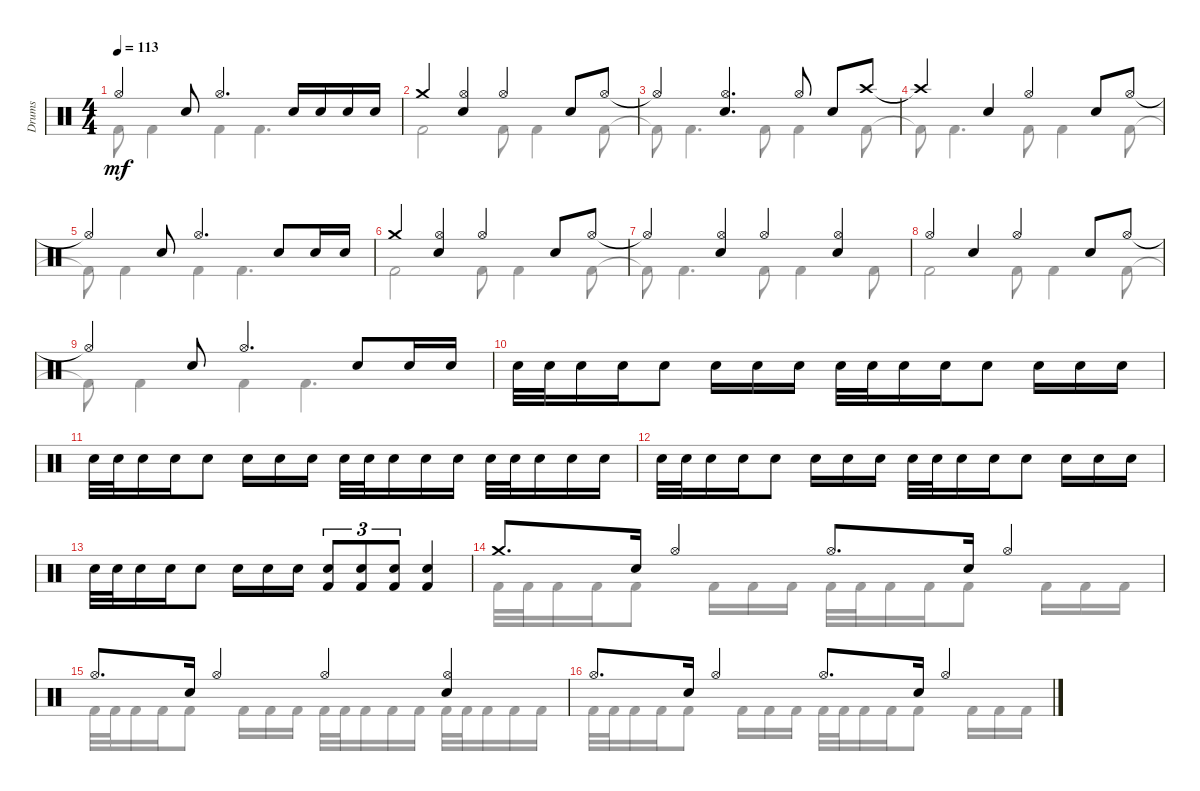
\track ("Drums" "Drums") {instrument percussion}
\staff {score}
\articulation defaults
\voice
\ts (4 4)
\tempo 113
\clef neutral
\ks c "Hi-Hat (open)"{t}.4{dy mf} "Snare (hit) 2".8 "Hi-Hat (open)".4{d} "Snare (hit) 2".16 "Snare (hit) 2".16 "Snare (hit) 2".16 "Snare (hit) 2".16
|
"Crash medium (hit)".4 ("Hi-Hat (open)" "Snare (hit) 2").4 "Hi-Hat (open)".4 "Snare (hit) 2".8 "Hi-Hat (open)".8 |
"Hi-Hat (open)"{t}.4 ("Hi-Hat (open)" "Snare (hit) 2").4{d} "Hi-Hat (open)".8 "Snare (hit) 2".8 "Crash high (hit)".8 |
"Crash high (hit)"{t}.4 "Snare (hit) 2".4 "Hi-Hat (open)".4 "Snare (hit) 2".8 "Hi-Hat (open)".8 |
"Hi-Hat (open)"{t}.4 "Snare (hit) 2".8 "Hi-Hat (open)".4{d} "Snare (hit) 2".8 "Snare (hit) 2".16 "Snare (hit) 2".16 |
"Crash medium (hit)".4 ("Hi-Hat (open)" "Snare (hit) 2").4 "Hi-Hat (open)".4 "Snare (hit) 2".8 "Hi-Hat (open)".8 |
"Hi-Hat (open)"{t}.4 ("Hi-Hat (open)" "Snare (hit) 2").4 "Hi-Hat (open)".4 ("Hi-Hat (open)" "Snare (hit) 2").4 |
"Hi-Hat (open)".4 "Snare (hit) 2".4 "Hi-Hat (open)".4 "Snare (hit) 2".8 "Hi-Hat (open)".8 |
"Hi-Hat (open)"{t}.4 "Snare (hit) 2".8 "Hi-Hat (open)".4{d} "Snare (hit) 2".8 "Snare (hit) 2".16 "Snare (hit) 2".16 |
"Snare (hit) 2".32 "Snare (hit) 2".32 "Snare (hit) 2".16 "Snare (hit) 2".16 "Snare (hit) 2".8 "Snare (hit) 2".16 "Snare (hit) 2".16 "Snare (hit) 2".16 "Snare (hit) 2".32 "Snare (hit) 2".32 "Snare (hit) 2".16 "Snare (hit) 2".16 "Snare (hit) 2".8 "Snare (hit) 2".16 "Snare (hit) 2".16 "Snare (hit) 2".16 |
"Snare (hit) 2".32 "Snare (hit) 2".32 "Snare (hit) 2".16 "Snare (hit) 2".16 "Snare (hit) 2".8 "Snare (hit) 2".16 "Snare (hit) 2".16 "Snare (hit) 2".16 "Snare (hit) 2".32 "Snare (hit) 2".32 "Snare (hit) 2".16 "Snare (hit) 2".16 "Snare (hit) 2".16 "Snare (hit) 2".32 "Snare (hit) 2".32 "Snare (hit) 2".16 "Snare (hit) 2".16 "Snare (hit) 2".16 |
"Snare (hit) 2".32 "Snare (hit) 2".32 "Snare (hit) 2".16 "Snare (hit) 2".16 "Snare (hit) 2".8 "Snare (hit) 2".16 "Snare (hit) 2".16 "Snare (hit) 2".16 "Snare (hit) 2".32 "Snare (hit) 2".32 "Snare (hit) 2".16 "Snare (hit) 2".16 "Snare (hit) 2".8 "Snare (hit) 2".16 "Snare (hit) 2".16 "Snare (hit) 2".16 |
"Snare (hit) 2".32 "Snare (hit) 2".32 "Snare (hit) 2".16 "Snare (hit) 2".16 "Snare (hit) 2".8 "Snare (hit) 2".16 "Snare (hit) 2".16 "Snare (hit) 2".16 ("Snare (hit) 2" "Kick (hit) 2").8{tu (3 2)} ("Snare (hit) 2" "Kick (hit) 2").8{tu (3 2)} ("Snare (hit) 2" "Kick (hit) 2").8{tu (3 2)} ("Snare (hit) 2" "Kick (hit) 2").4 |
"Crash medium (hit)".8{d} "Snare (hit) 2".16 "Hi-Hat (open)".4 "Hi-Hat (open)".8{d} "Snare (hit) 2".16 "Hi-Hat (open)".4 |
"Hi-Hat (open)".8{d} "Snare (hit) 2".16 "Hi-Hat (open)".4 "Hi-Hat (open)".4 ("Hi-Hat (open)" "Snare (hit) 2").4 |
"Hi-Hat (open)".8{d} "Snare (hit) 2".16 "Hi-Hat (open)".4 "Hi-Hat (open)".8{d} "Snare (hit) 2".16 "Hi-Hat (open)".4
\voice
\clef neutral
\ottava regular
\simile none
\ks c "Kick (hit) 2"{t}.8{dy mf} "Kick (hit) 2".4 "Kick (hit) 2".4 "Kick (hit) 2".4{d}
|
"Kick (hit) 2".2 "Kick (hit) 2".8 "Kick (hit) 2".4 "Kick (hit) 2".8 |
"Kick (hit) 2"{t}.8 "Kick (hit) 2".4{d} "Kick (hit) 2".8 "Kick (hit) 2".4 "Kick (hit) 2".8 |
"Kick (hit) 2"{t}.8 "Kick (hit) 2".4{d} "Kick (hit) 2".8 "Kick (hit) 2".4 "Kick (hit) 2".8 |
"Kick (hit) 2"{t}.8 "Kick (hit) 2".4 "Kick (hit) 2".4 "Kick (hit) 2".4{d} |
"Kick (hit) 2".2 "Kick (hit) 2".8 "Kick (hit) 2".4 "Kick (hit) 2".8 |
"Kick (hit) 2"{t}.8 "Kick (hit) 2".4{d} "Kick (hit) 2".8 "Kick (hit) 2".4 "Kick (hit) 2".8 |
"Kick (hit) 2".2 "Kick (hit) 2".8 "Kick (hit) 2".4 "Kick (hit) 2".8 |
"Kick (hit) 2"{t}.8 "Kick (hit) 2".4 "Kick (hit) 2".4 "Kick (hit) 2".4{d} |
|
|
|
|
"Kick (hit) 2".32 "Kick (hit) 2".32 "Kick (hit) 2".16 "Kick (hit) 2".16 "Kick (hit) 2".8 "Kick (hit) 2".16 "Kick (hit) 2".16 "Kick (hit) 2".16 "Kick (hit) 2".32 "Kick (hit) 2".32 "Kick (hit) 2".16 "Kick (hit) 2".16 "Kick (hit) 2".8 "Kick (hit) 2".16 "Kick (hit) 2".16 "Kick (hit) 2".16 |
"Kick (hit) 2".32 "Kick (hit) 2".32 "Kick (hit) 2".16 "Kick (hit) 2".16 "Kick (hit) 2".8 "Kick (hit) 2".16 "Kick (hit) 2".16 "Kick (hit) 2".16 "Kick (hit) 2".32 "Kick (hit) 2".32 "Kick (hit) 2".16 "Kick (hit) 2".16 "Kick (hit) 2".16 "Kick (hit) 2".32 "Kick (hit) 2".32 "Kick (hit) 2".16 "Kick (hit) 2".16 "Kick (hit) 2".16 |
"Kick (hit) 2".32 "Kick (hit) 2".32 "Kick (hit) 2".16 "Kick (hit) 2".16 "Kick (hit) 2".8 "Kick (hit) 2".16 "Kick (hit) 2".16 "Kick (hit) 2".16 "Kick (hit) 2".32 "Kick (hit) 2".32 "Kick (hit) 2".16 "Kick (hit) 2".16 "Kick (hit) 2".8 "Kick (hit) 2".16 "Kick (hit) 2".16 "Kick (hit) 2".16
